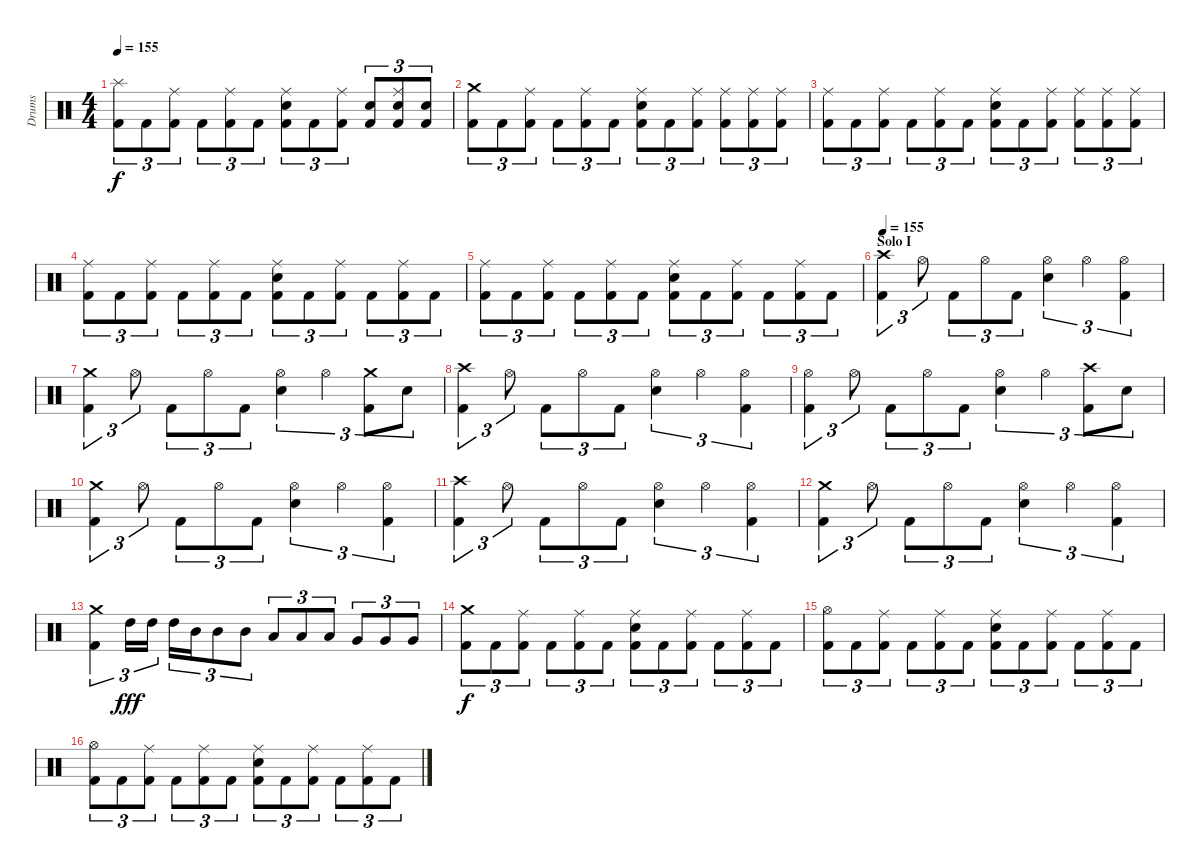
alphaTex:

\track ("Drums" "Drums") {instrument percussion}
\staff {score}
\articulation defaults
\ts (4 4)
\tempo 155
\clef neutral
\ks c
("Kick (hit) 2" "Splash (hit)").8{tu (3 2) dy f} "Kick (hit) 2".8{tu (3 2)} ("Kick (hit) 2" "Ride (middle)").8{tu (3 2)} "Kick (hit) 2".8{tu (3 2)} ("Kick (hit) 2" "Ride (middle)").8{tu (3 2)} "Kick (hit) 2".8{tu (3 2)} ("Kick (hit) 2" "Electric Snare (hit)" "Ride (middle)").8{tu (3 2)} "Kick (hit) 2".8{tu (3 2)} ("Kick (hit) 2" "Ride (middle)").8{tu (3 2)} ("Kick (hit) 2" "Electric Snare (hit)").8{tu (3 2)} ("Kick (hit) 2" "Electric Snare (hit)" "Ride (middle)").8{tu (3 2)} ("Kick (hit) 2" "Electric Snare (hit)").8{tu (3 2)} |
("Kick (hit) 2" "Crash medium (hit)").8{tu (3 2)} "Kick (hit) 2".8{tu (3 2)} ("Kick (hit) 2" "Ride (middle)").8{tu (3 2)} "Kick (hit) 2".8{tu (3 2)} ("Kick (hit) 2" "Ride (middle)").8{tu (3 2)} "Kick (hit) 2".8{tu (3 2)} ("Kick (hit) 2" "Electric Snare (hit)" "Ride (middle)").8{tu (3 2)} "Kick (hit) 2".8{tu (3 2)} ("Kick (hit) 2" "Ride (middle)").8{tu (3 2)} ("Kick (hit) 2" "Ride (middle)").8{tu (3 2)} ("Kick (hit) 2" "Ride (middle)").8{tu (3 2)} ("Kick (hit) 2" "Ride (middle)").8{tu (3 2)} |
("Kick (hit) 2" "Ride (middle)").8{tu (3 2)} "Kick (hit) 2".8{tu (3 2)} ("Kick (hit) 2" "Ride (middle)").8{tu (3 2)} "Kick (hit) 2".8{tu (3 2)} ("Kick (hit) 2" "Ride (middle)").8{tu (3 2)} "Kick (hit) 2".8{tu (3 2)} ("Kick (hit) 2" "Electric Snare (hit)" "Ride (middle)").8{tu (3 2)} "Kick (hit) 2".8{tu (3 2)} ("Kick (hit) 2" "Ride (middle)").8{tu (3 2)} ("Kick (hit) 2" "Ride (middle)").8{tu (3 2)} ("Kick (hit) 2" "Ride (middle)").8{tu (3 2)} ("Kick (hit) 2" "Ride (middle)").8{tu (3 2)} |
("Kick (hit) 2" "Ride (middle)").8{tu (3 2)} "Kick (hit) 2".8{tu (3 2)} ("Kick (hit) 2" "Ride (middle)").8{tu (3 2)} "Kick (hit) 2".8{tu (3 2)} ("Kick (hit) 2" "Ride (middle)").8{tu (3 2)} "Kick (hit) 2".8{tu (3 2)} ("Kick (hit) 2" "Electric Snare (hit)" "Ride (middle)").8{tu (3 2)} "Kick (hit) 2".8{tu (3 2)} ("Kick (hit) 2" "Ride (middle)").8{tu (3 2)} "Kick (hit) 2".8{tu (3 2)} ("Kick (hit) 2" "Ride (middle)").8{tu (3 2)} "Kick (hit) 2".8{tu (3 2)} |
("Kick (hit) 2" "Ride (middle)").8{tu (3 2)} "Kick (hit) 2".8{tu (3 2)} ("Kick (hit) 2" "Ride (middle)").8{tu (3 2)} "Kick (hit) 2".8{tu (3 2)} ("Kick (hit) 2" "Ride (middle)").8{tu (3 2)} "Kick (hit) 2".8{tu (3 2)} ("Kick (hit) 2" "Electric Snare (hit)" "Ride (middle)").8{tu (3 2)} "Kick (hit) 2".8{tu (3 2)} ("Kick (hit) 2" "Ride (middle)").8{tu (3 2)} "Kick (hit) 2".8{tu (3 2)} ("Kick (hit) 2" "Ride (middle)").8{tu (3 2)} "Kick (hit) 2".8{tu (3 2)} |
\section ("" "Solo I")
\tempo 155
("Kick (hit) 2" "Crash high (hit)").4{tu (3 2)} "Hi-Hat (open)".8{tu (3 2)} "Kick (hit) 2".8{tu (3 2)} "Hi-Hat (open)".8{tu (3 2)} "Kick (hit) 2".8{tu (3 2)} ("Electric Snare (hit)" "Hi-Hat (open)").4{tu (3 2)} "Hi-Hat (open)".4{tu (3 2)} ("Kick (hit) 2" "Hi-Hat (open)").4{tu (3 2)} |
("Kick (hit) 2" "Crash medium (hit)").4{tu (3 2)} "Hi-Hat (open)".8{tu (3 2)} "Kick (hit) 2".8{tu (3 2)} "Hi-Hat (open)".8{tu (3 2)} "Kick (hit) 2".8{tu (3 2)} ("Electric Snare (hit)" "Hi-Hat (open)").4{tu (3 2)} "Hi-Hat (open)".4{tu (3 2)} ("Kick (hit) 2" "Crash medium (hit)").8{tu (3 2)} "Electric Snare (hit)".8{tu (3 2)} |
("Kick (hit) 2" "Crash high (hit)").4{tu (3 2)} "Hi-Hat (open)".8{tu (3 2)} "Kick (hit) 2".8{tu (3 2)} "Hi-Hat (open)".8{tu (3 2)} "Kick (hit) 2".8{tu (3 2)} ("Electric Snare (hit)" "Hi-Hat (open)").4{tu (3 2)} "Hi-Hat (open)".4{tu (3 2)} ("Kick (hit) 2" "Hi-Hat (open)").4{tu (3 2)} |
("Kick (hit) 2" "Hi-Hat (open)").4{tu (3 2)} "Hi-Hat (open)".8{tu (3 2)} "Kick (hit) 2".8{tu (3 2)} "Hi-Hat (open)".8{tu (3 2)} "Kick (hit) 2".8{tu (3 2)} ("Electric Snare (hit)" "Hi-Hat (open)").4{tu (3 2)} "Hi-Hat (open)".4{tu (3 2)} ("Kick (hit) 2" "Crash high (hit)").8{tu (3 2)} "Electric Snare (hit)".8{tu (3 2)} |
("Kick (hit) 2" "Crash medium (hit)").4{tu (3 2)} "Hi-Hat (open)".8{tu (3 2)} "Kick (hit) 2".8{tu (3 2)} "Hi-Hat (open)".8{tu (3 2)} "Kick (hit) 2".8{tu (3 2)} ("Electric Snare (hit)" "Hi-Hat (open)").4{tu (3 2)} "Hi-Hat (open)".4{tu (3 2)} ("Kick (hit) 2" "Hi-Hat (open)").4{tu (3 2)} |
("Kick (hit) 2" "Crash high (hit)").4{tu (3 2)} "Hi-Hat (open)".8{tu (3 2)} "Kick (hit) 2".8{tu (3 2)} "Hi-Hat (open)".8{tu (3 2)} "Kick (hit) 2".8{tu (3 2)} ("Electric Snare (hit)" "Hi-Hat (open)").4{tu (3 2)} "Hi-Hat (open)".4{tu (3 2)} ("Kick (hit) 2" "Hi-Hat (open)").4{tu (3 2)} |
("Kick (hit) 2" "Crash medium (hit)").4{tu (3 2)} "Hi-Hat (open)".8{tu (3 2)} "Kick (hit) 2".8{tu (3 2)} "Hi-Hat (open)".8{tu (3 2)} "Kick (hit) 2".8{tu (3 2)} ("Electric Snare (hit)" "Hi-Hat (open)").4{tu (3 2)} "Hi-Hat (open)".4{tu (3 2)} ("Kick (hit) 2" "Hi-Hat (open)").4{tu (3 2)} |
("Kick (hit) 2" "Crash medium (hit)").4{tu (3 2)} "High Tom (hit)".16{tu (3 2) dy fff} "High Tom (hit)".16{tu (3 2)} "High Tom (hit)".16{tu (3 2)} "Mid Tom (hit)".16{tu (3 2)} "Mid Tom (hit)".8{tu (3 2)} "Mid Tom (hit)".8{tu (3 2)} "Low Tom (hit)".8{tu (3 2)} "Low Tom (hit)".8{tu (3 2)} "Low Tom (hit)".8{tu (3 2)} "Very Low Tom (hit)".8{tu (3 2)} "Very Low Tom (hit)".8{tu (3 2)} "Very Low Tom (hit)".8{tu (3 2)} |
("Kick (hit) 2" "Crash medium (hit)").8{tu (3 2) dy f} "Kick (hit) 2".8{tu (3 2)} ("Kick (hit) 2" "Ride (middle)").8{tu (3 2)} "Kick (hit) 2".8{tu (3 2)} ("Kick (hit) 2" "Ride (middle)").8{tu (3 2)} "Kick (hit) 2".8{tu (3 2)} ("Kick (hit) 2" "Electric Snare (hit)" "Ride (middle)").8{tu (3 2)} "Kick (hit) 2".8{tu (3 2)} ("Kick (hit) 2" "Ride (middle)").8{tu (3 2)} "Kick (hit) 2".8{tu (3 2)} ("Kick (hit) 2" "Ride (middle)").8{tu (3 2)} "Kick (hit) 2".8{tu (3 2)} |
("Kick (hit) 2" "Hi-Hat (open)").8{tu (3 2)} "Kick (hit) 2".8{tu (3 2)} ("Kick (hit) 2" "Ride (middle)").8{tu (3 2)} "Kick (hit) 2".8{tu (3 2)} ("Kick (hit) 2" "Ride (middle)").8{tu (3 2)} "Kick (hit) 2".8{tu (3 2)} ("Kick (hit) 2" "Electric Snare (hit)" "Ride (middle)").8{tu (3 2)} "Kick (hit) 2".8{tu (3 2)} ("Kick (hit) 2" "Ride (middle)").8{tu (3 2)} "Kick (hit) 2".8{tu (3 2)} ("Kick (hit) 2" "Ride (middle)").8{tu (3 2)} "Kick (hit) 2".8{tu (3 2)} |
("Kick (hit) 2" "Hi-Hat (open)").8{tu (3 2)} "Kick (hit) 2".8{tu (3 2)} ("Kick (hit) 2" "Ride (middle)").8{tu (3 2)} "Kick (hit) 2".8{tu (3 2)} ("Kick (hit) 2" "Ride (middle)").8{tu (3 2)} "Kick (hit) 2".8{tu (3 2)} ("Kick (hit) 2" "Electric Snare (hit)" "Ride (middle)").8{tu (3 2)} "Kick (hit) 2".8{tu (3 2)} ("Kick (hit) 2" "Ride (middle)").8{tu (3 2)} "Kick (hit) 2".8{tu (3 2)} ("Kick (hit) 2" "Ride (middle)").8{tu (3 2)} "Kick (hit) 2".8{tu (3 2)}
